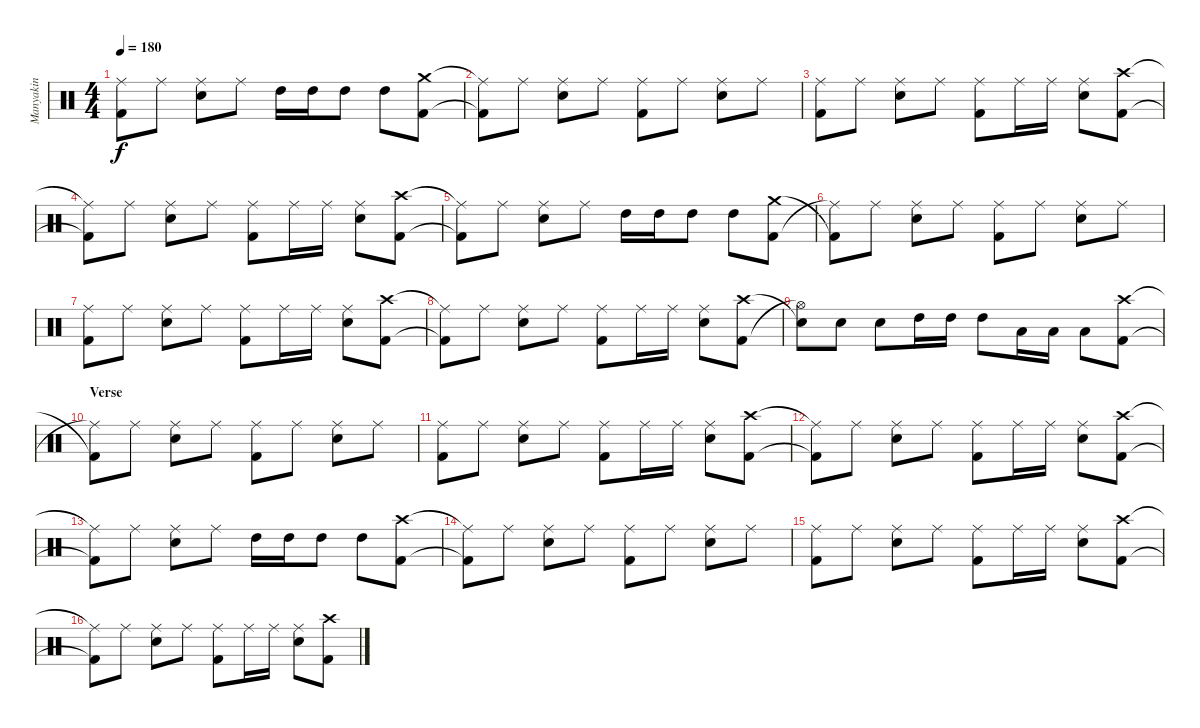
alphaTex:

\track ("Manyakin" "Manyakin") {instrument percussion}
\staff {score}
\articulation defaults
\ts (4 4)
\tempo 180
\clef neutral
\ks c
("Kick (hit) 2"{t} "Ride (middle)"{t}).8{dy f} "Ride (middle)".8 ("Snare (hit) 2" "Ride (middle)").8 "Ride (middle)".8 "High Tom (hit)".16 "High Tom (hit)".16 "High Tom (hit)".8 "High Tom (hit)".8 ("Crash medium (hit)" "Kick (hit) 2").8 |
("Ride (middle)"{t} "Kick (hit) 2"{t}).8 "Ride (middle)".8 ("Ride (middle)" "Snare (hit) 2").8 "Ride (middle)".8 ("Ride (middle)" "Kick (hit) 2").8 "Ride (middle)".8 ("Ride (middle)" "Snare (hit) 2").8 "Ride (middle)".8 |
("Kick (hit) 2" "Ride (middle)").8 "Ride (middle)".8 ("Snare (hit) 2" "Ride (middle)").8 "Ride (middle)".8 ("Kick (hit) 2" "Ride (middle)").8 "Ride (middle)".16 "Ride (middle)".16 ("Snare (hit) 2" "Ride (middle)").8 ("Kick (hit) 2" "Crash high (hit)").8 |
("Kick (hit) 2"{t} "Ride (middle)"{t}).8 "Ride (middle)".8 ("Snare (hit) 2" "Ride (middle)").8 "Ride (middle)".8 ("Kick (hit) 2" "Ride (middle)").8 "Ride (middle)".16 "Ride (middle)".16 ("Snare (hit) 2" "Ride (middle)").8 ("Kick (hit) 2" "Crash high (hit)").8 |
("Kick (hit) 2"{t} "Ride (middle)"{t}).8 "Ride (middle)".8 ("Snare (hit) 2" "Ride (middle)").8 "Ride (middle)".8 "High Tom (hit)".16 "High Tom (hit)".16 "High Tom (hit)".8 "High Tom (hit)".8 ("Crash medium (hit)" "Kick (hit) 2").8 |
("Kick (hit) 2"{t} "Ride (middle)"{t}).8 "Ride (middle)".8 ("Snare (hit) 2" "Ride (middle)").8 "Ride (middle)".8 ("Kick (hit) 2" "Ride (middle)").8 "Ride (middle)".8 ("Snare (hit) 2" "Ride (middle)").8 "Ride (middle)".8 |
("Kick (hit) 2" "Ride (middle)").8 "Ride (middle)".8 ("Snare (hit) 2" "Ride (middle)").8 "Ride (middle)".8 ("Kick (hit) 2" "Ride (middle)").8 "Ride (middle)".16 "Ride (middle)".16 ("Snare (hit) 2" "Ride (middle)").8 ("Kick (hit) 2" "Crash high (hit)").8 |
("Kick (hit) 2"{t} "Ride (middle)"{t}).8 "Ride (middle)".8 ("Snare (hit) 2" "Ride (middle)").8 "Ride (middle)".8 ("Kick (hit) 2" "Ride (middle)").8 "Ride (middle)".16 "Ride (middle)".16 ("Snare (hit) 2" "Ride (middle)").8 ("Kick (hit) 2" "Crash high (hit)").8 |
("Hi-Hat (open)"{t} "Snare (hit)"{t}).8 "Snare (hit) 2".8 "Snare (hit) 2".8 "High Tom (hit)".16 "High Tom (hit)".16 "High Tom (hit)".8 "Low Tom (hit)".16 "Low Tom (hit)".16 "Low Tom (hit)".8 ("Kick (hit) 2" "Crash high (hit)").8 |
\section ("" "Verse")
("Ride (middle)"{t} "Kick (hit) 2"{t}).8 "Ride (middle)".8 ("Ride (middle)" "Snare (hit) 2").8 "Ride (middle)".8 ("Ride (middle)" "Kick (hit) 2").8 "Ride (middle)".8 ("Ride (middle)" "Snare (hit) 2").8 "Ride (middle)".8 |
("Kick (hit) 2" "Ride (middle)").8 "Ride (middle)".8 ("Snare (hit) 2" "Ride (middle)").8 "Ride (middle)".8 ("Kick (hit) 2" "Ride (middle)").8 "Ride (middle)".16 "Ride (middle)".16 ("Snare (hit) 2" "Ride (middle)").8 ("Kick (hit) 2" "Crash high (hit)").8 |
("Kick (hit) 2"{t} "Ride (middle)"{t}).8 "Ride (middle)".8 ("Snare (hit) 2" "Ride (middle)").8 "Ride (middle)".8 ("Kick (hit) 2" "Ride (middle)").8 "Ride (middle)".16 "Ride (middle)".16 ("Snare (hit) 2" "Ride (middle)").8 ("Kick (hit) 2" "Crash high (hit)").8 |
("Kick (hit) 2"{t} "Ride (middle)"{t}).8 "Ride (middle)".8 ("Snare (hit) 2" "Ride (middle)").8 "Ride (middle)".8 "High Tom (hit)".16 "High Tom (hit)".16 "High Tom (hit)".8 "High Tom (hit)".8 ("Crash high (hit)" "Kick (hit) 2").8 |
("Ride (middle)"{t} "Kick (hit) 2"{t}).8 "Ride (middle)".8 ("Ride (middle)" "Snare (hit) 2").8 "Ride (middle)".8 ("Ride (middle)" "Kick (hit) 2").8 "Ride (middle)".8 ("Ride (middle)" "Snare (hit) 2").8 "Ride (middle)".8 |
("Kick (hit) 2" "Ride (middle)").8 "Ride (middle)".8 ("Snare (hit) 2" "Ride (middle)").8 "Ride (middle)".8 ("Kick (hit) 2" "Ride (middle)").8 "Ride (middle)".16 "Ride (middle)".16 ("Snare (hit) 2" "Ride (middle)").8 ("Kick (hit) 2" "Crash high (hit)").8 |
("Kick (hit) 2"{t} "Ride (middle)"{t}).8 "Ride (middle)".8 ("Snare (hit) 2" "Ride (middle)").8 "Ride (middle)".8 ("Kick (hit) 2" "Ride (middle)").8 "Ride (middle)".16 "Ride (middle)".16 ("Snare (hit) 2" "Ride (middle)").8 ("Kick (hit) 2" "Crash high (hit)").8
